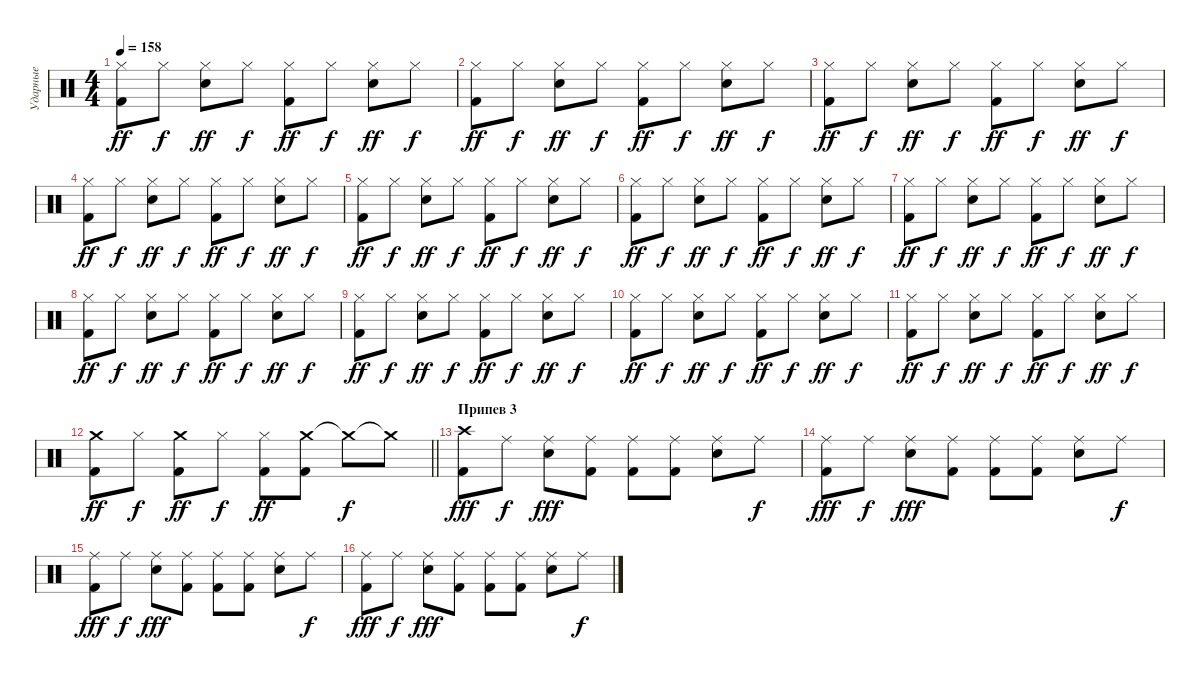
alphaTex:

\track ("Ударные" "Ударные") {instrument percussion}
\staff {score}
\articulation defaults
\ts (4 4)
\tempo 158
\clef neutral
\ks c
("Hi-Hat (closed)" "Kick (hit) 2").8{dy ff} "Hi-Hat (closed)".8{dy f} ("Hi-Hat (closed)" "Electric Snare (hit)").8{dy ff} "Hi-Hat (closed)".8{dy f} ("Hi-Hat (closed)" "Kick (hit) 2").8{dy ff} "Hi-Hat (closed)".8{dy f} ("Hi-Hat (closed)" "Electric Snare (hit)").8{dy ff} "Hi-Hat (closed)".8{dy f} |
("Hi-Hat (closed)" "Kick (hit) 2").8{dy ff} "Hi-Hat (closed)".8{dy f} ("Hi-Hat (closed)" "Electric Snare (hit)").8{dy ff} "Hi-Hat (closed)".8{dy f} ("Hi-Hat (closed)" "Kick (hit) 2").8{dy ff} "Hi-Hat (closed)".8{dy f} ("Hi-Hat (closed)" "Electric Snare (hit)").8{dy ff} "Hi-Hat (closed)".8{dy f} |
("Hi-Hat (closed)" "Kick (hit) 2").8{dy ff} "Hi-Hat (closed)".8{dy f} ("Hi-Hat (closed)" "Electric Snare (hit)").8{dy ff} "Hi-Hat (closed)".8{dy f} ("Hi-Hat (closed)" "Kick (hit) 2").8{dy ff} "Hi-Hat (closed)".8{dy f} ("Hi-Hat (closed)" "Electric Snare (hit)").8{dy ff} "Hi-Hat (closed)".8{dy f} |
("Hi-Hat (closed)" "Kick (hit) 2").8{dy ff} "Hi-Hat (closed)".8{dy f} ("Hi-Hat (closed)" "Electric Snare (hit)").8{dy ff} "Hi-Hat (closed)".8{dy f} ("Hi-Hat (closed)" "Kick (hit) 2").8{dy ff} "Hi-Hat (closed)".8{dy f} ("Hi-Hat (closed)" "Electric Snare (hit)").8{dy ff} "Hi-Hat (closed)".8{dy f} |
("Hi-Hat (closed)" "Kick (hit) 2").8{dy ff} "Hi-Hat (closed)".8{dy f} ("Hi-Hat (closed)" "Electric Snare (hit)").8{dy ff} "Hi-Hat (closed)".8{dy f} ("Hi-Hat (closed)" "Kick (hit) 2").8{dy ff} "Hi-Hat (closed)".8{dy f} ("Hi-Hat (closed)" "Electric Snare (hit)").8{dy ff} "Hi-Hat (closed)".8{dy f} |
("Hi-Hat (closed)" "Kick (hit) 2").8{dy ff} "Hi-Hat (closed)".8{dy f} ("Hi-Hat (closed)" "Electric Snare (hit)").8{dy ff} "Hi-Hat (closed)".8{dy f} ("Hi-Hat (closed)" "Kick (hit) 2").8{dy ff} "Hi-Hat (closed)".8{dy f} ("Hi-Hat (closed)" "Electric Snare (hit)").8{dy ff} "Hi-Hat (closed)".8{dy f} |
("Hi-Hat (closed)" "Kick (hit) 2").8{dy ff} "Hi-Hat (closed)".8{dy f} ("Hi-Hat (closed)" "Electric Snare (hit)").8{dy ff} "Hi-Hat (closed)".8{dy f} ("Hi-Hat (closed)" "Kick (hit) 2").8{dy ff} "Hi-Hat (closed)".8{dy f} ("Hi-Hat (closed)" "Electric Snare (hit)").8{dy ff} "Hi-Hat (closed)".8{dy f} |
("Hi-Hat (closed)" "Kick (hit) 2").8{dy ff} "Hi-Hat (closed)".8{dy f} ("Hi-Hat (closed)" "Electric Snare (hit)").8{dy ff} "Hi-Hat (closed)".8{dy f} ("Hi-Hat (closed)" "Kick (hit) 2").8{dy ff} "Hi-Hat (closed)".8{dy f} ("Hi-Hat (closed)" "Electric Snare (hit)").8{dy ff} "Hi-Hat (closed)".8{dy f} |
("Hi-Hat (closed)" "Kick (hit) 2").8{dy ff} "Hi-Hat (closed)".8{dy f} ("Hi-Hat (closed)" "Electric Snare (hit)").8{dy ff} "Hi-Hat (closed)".8{dy f} ("Hi-Hat (closed)" "Kick (hit) 2").8{dy ff} "Hi-Hat (closed)".8{dy f} ("Hi-Hat (closed)" "Electric Snare (hit)").8{dy ff} "Hi-Hat (closed)".8{dy f} |
("Hi-Hat (closed)" "Kick (hit) 2").8{dy ff} "Hi-Hat (closed)".8{dy f} ("Hi-Hat (closed)" "Electric Snare (hit)").8{dy ff} "Hi-Hat (closed)".8{dy f} ("Hi-Hat (closed)" "Kick (hit) 2").8{dy ff} "Hi-Hat (closed)".8{dy f} ("Hi-Hat (closed)" "Electric Snare (hit)").8{dy ff} "Hi-Hat (closed)".8{dy f} |
("Hi-Hat (closed)" "Kick (hit) 2").8{dy ff} "Hi-Hat (closed)".8{dy f} ("Hi-Hat (closed)" "Electric Snare (hit)").8{dy ff} "Hi-Hat (closed)".8{dy f} ("Hi-Hat (closed)" "Kick (hit) 2").8{dy ff} "Hi-Hat (closed)".8{dy f} ("Hi-Hat (closed)" "Electric Snare (hit)").8{dy ff} "Hi-Hat (closed)".8{dy f} |
\barLineRight lightlight
("Crash medium (hit)" "Kick (hit) 2").8{dy ff} "Hi-Hat (closed)".8{dy f} ("Crash medium (hit)" "Kick (hit) 2").8{dy ff} "Hi-Hat (closed)".8{dy f} ("Hi-Hat (closed)" "Kick (hit) 2").8{dy ff} ("Crash medium (hit)" "Kick (hit) 2").8 "Crash medium (hit)"{t}.8{dy f} "Crash medium (hit)"{t}.8 |
\section ("" "Припев 3")
("Crash high (hit)" "Kick (hit) 2").8{dy fff} "Ride (middle)".8{dy f} ("Ride (middle)" "Electric Snare (hit)").8{dy fff} ("Ride (middle)" "Kick (hit) 2").8 ("Ride (middle)" "Kick (hit) 2").8 ("Ride (middle)" "Kick (hit) 2").8 ("Ride (middle)" "Snare (hit) 2").8 "Ride (middle)".8{dy f} |
("Ride (middle)" "Kick (hit) 2").8{dy fff} "Ride (middle)".8{dy f} ("Ride (middle)" "Electric Snare (hit)").8{dy fff} ("Ride (middle)" "Kick (hit) 2").8 ("Ride (middle)" "Kick (hit) 2").8 ("Ride (middle)" "Kick (hit) 2").8 ("Ride (middle)" "Snare (hit) 2").8 "Ride (middle)".8{dy f} |
("Ride (middle)" "Kick (hit) 2").8{dy fff} "Ride (middle)".8{dy f} ("Ride (middle)" "Electric Snare (hit)").8{dy fff} ("Ride (middle)" "Kick (hit) 2").8 ("Ride (middle)" "Kick (hit) 2").8 ("Ride (middle)" "Kick (hit) 2").8 ("Ride (middle)" "Snare (hit) 2").8 "Ride (middle)".8{dy f} |
("Ride (middle)" "Kick (hit) 2").8{dy fff} "Ride (middle)".8{dy f} ("Ride (middle)" "Electric Snare (hit)").8{dy fff} ("Ride (middle)" "Kick (hit) 2").8 ("Ride (middle)" "Kick (hit) 2").8 ("Ride (middle)" "Kick (hit) 2").8 ("Ride (middle)" "Snare (hit) 2").8 "Ride (middle)".8{dy f}
